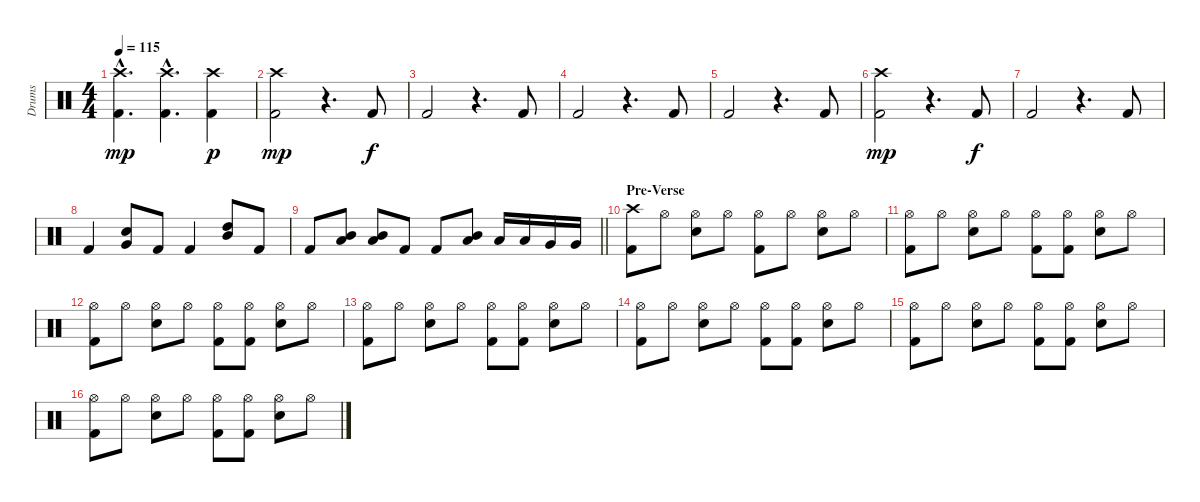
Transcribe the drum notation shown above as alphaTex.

\track ("Drums" "Drums") {instrument percussion}
\staff {score}
\articulation defaults
\ts (4 4)
\tempo 115
\clef neutral
\ks c
("Crash high (hit)"{hac} "Kick (hit) 2"{hac}).4{d dy mp} ("Crash high (hit)"{hac} "Kick (hit) 2"{hac}).4{d} ("Crash high (hit)" "Kick (hit) 2").4{dy p} |
("Crash high (hit)" "Kick (hit) 2").2{dy mp} r.4{d} "Kick (hit) 2".8{dy f} |
"Kick (hit) 2".2 r.4{d} "Kick (hit) 2".8 |
"Kick (hit) 2".2 r.4{d} "Kick (hit) 2".8 |
"Kick (hit) 2".2 r.4{d} "Kick (hit) 2".8 |
("Crash high (hit)" "Kick (hit) 2").2{dy mp} r.4{d} "Kick (hit) 2".8{dy f} |
"Kick (hit) 2".2 r.4{d} "Kick (hit) 2".8 |
"Kick (hit) 2".4 ("Very Low Tom (hit)" "Electric Snare (hit)").8 "Kick (hit) 2".8 "Kick (hit) 2".4 ("High Tom (hit)" "Mid Tom (hit)").8 "Kick (hit) 2".8 |
\barLineRight lightlight "Kick (hit) 2".8
("Mid Tom (hit)" "Low Tom (hit)").8 ("Mid Tom (hit)" "Low Tom (hit)").8 "Kick (hit) 2".8 "Kick (hit) 2".8 ("Mid Tom (hit)" "Low Tom (hit)").8 "Low Tom (hit)".16 "Low Tom (hit)".16 "Very Low Tom (hit)".16 "Very Low Tom (hit)".16 |
\section ("" "Pre-Verse")
("Crash high (hit)" "Kick (hit) 2").8 "Hi-Hat (open)".8 ("Hi-Hat (open)" "Electric Snare (hit)").8 "Hi-Hat (open)".8 ("Hi-Hat (open)" "Kick (hit) 2").8 "Hi-Hat (open)".8 ("Hi-Hat (open)" "Electric Snare (hit)").8 "Hi-Hat (open)".8 |
("Hi-Hat (open)" "Kick (hit) 2").8 "Hi-Hat (open)".8 ("Hi-Hat (open)" "Electric Snare (hit)").8 "Hi-Hat (open)".8 ("Hi-Hat (open)" "Kick (hit) 2").8 ("Hi-Hat (open)" "Kick (hit) 2").8 ("Hi-Hat (open)" "Electric Snare (hit)").8 "Hi-Hat (open)".8 |
("Hi-Hat (open)" "Kick (hit) 2").8 "Hi-Hat (open)".8 ("Hi-Hat (open)" "Electric Snare (hit)").8 "Hi-Hat (open)".8 ("Hi-Hat (open)" "Kick (hit) 2").8 ("Hi-Hat (open)" "Kick (hit) 2").8 ("Hi-Hat (open)" "Electric Snare (hit)").8 "Hi-Hat (open)".8 |
("Hi-Hat (open)" "Kick (hit) 2").8 "Hi-Hat (open)".8 ("Hi-Hat (open)" "Electric Snare (hit)").8 "Hi-Hat (open)".8 ("Hi-Hat (open)" "Kick (hit) 2").8 ("Hi-Hat (open)" "Kick (hit) 2").8 ("Hi-Hat (open)" "Electric Snare (hit)").8 "Hi-Hat (open)".8 |
("Hi-Hat (open)" "Kick (hit) 2").8 "Hi-Hat (open)".8 ("Hi-Hat (open)" "Electric Snare (hit)").8 "Hi-Hat (open)".8 ("Hi-Hat (open)" "Kick (hit) 2").8 ("Hi-Hat (open)" "Kick (hit) 2").8 ("Hi-Hat (open)" "Electric Snare (hit)").8 "Hi-Hat (open)".8 |
("Hi-Hat (open)" "Kick (hit) 2").8 "Hi-Hat (open)".8 ("Hi-Hat (open)" "Electric Snare (hit)").8 "Hi-Hat (open)".8 ("Hi-Hat (open)" "Kick (hit) 2").8 ("Hi-Hat (open)" "Kick (hit) 2").8 ("Hi-Hat (open)" "Electric Snare (hit)").8 "Hi-Hat (open)".8 |
("Hi-Hat (open)" "Kick (hit) 2").8 "Hi-Hat (open)".8 ("Hi-Hat (open)" "Electric Snare (hit)").8 "Hi-Hat (open)".8 ("Hi-Hat (open)" "Kick (hit) 2").8 ("Hi-Hat (open)" "Kick (hit) 2").8 ("Hi-Hat (open)" "Electric Snare (hit)").8 "Hi-Hat (open)".8
